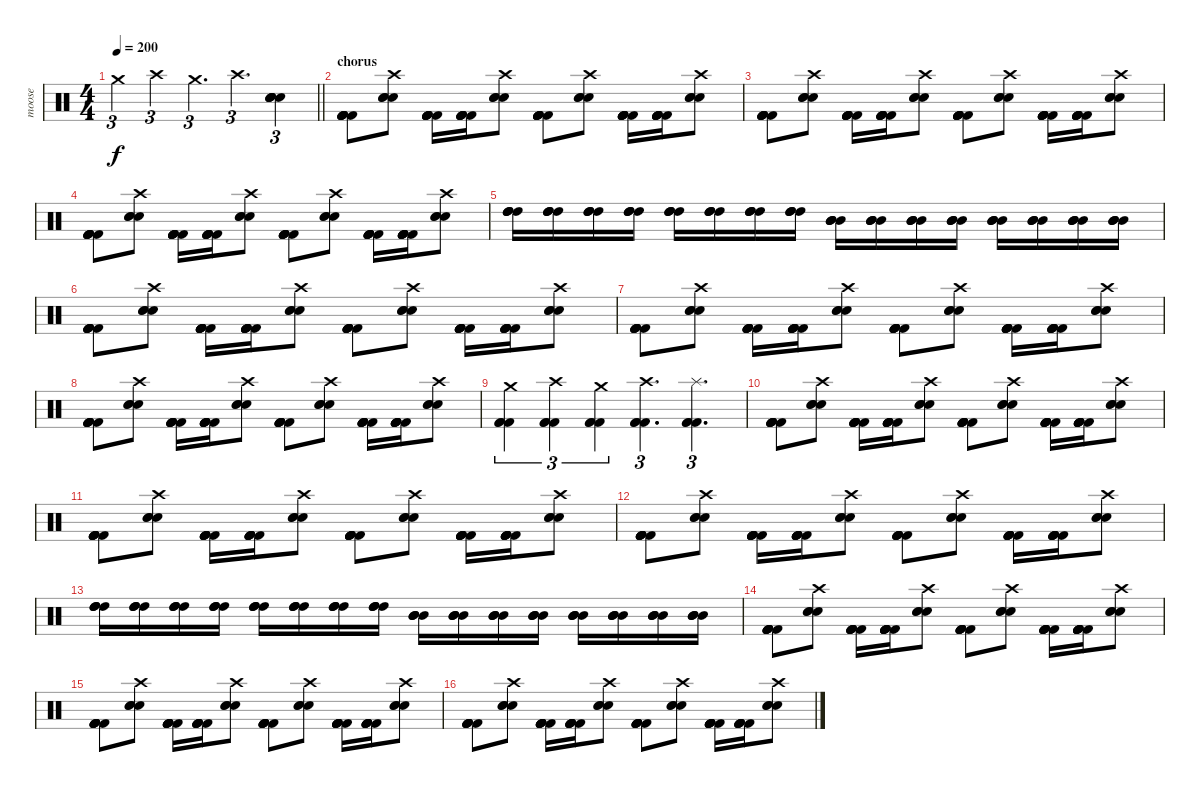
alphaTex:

\track ("moose" "moose") {instrument percussion}
\staff {score}
\articulation defaults
\ts (4 4)
\tempo 200
\clef neutral
\barLineRight lightlight
\ks c "Crash medium (hit)".4{tu (3 2) dy f} "Crash high (hit)".4{tu (3 2)} "Crash medium (hit)".4{d tu (3 2)} "Crash high (hit)".4{d tu (3 2)}
("Electric Snare (hit)" "Electric Snare (hit)" "Electric Snare (hit)" "Electric Snare (hit)" "Electric Snare (hit)").4{tu (3 2)} |
\section ("" "chorus")
("Kick (hit) 2" "Kick (hit) 2" "Kick (hit) 2" "Kick (hit) 2" "Kick (hit) 2" "Kick (hit) 2").8 ("Electric Snare (hit)" "Electric Snare (hit)" "Electric Snare (hit)" "Crash high (hit)").8 ("Kick (hit) 2" "Kick (hit) 2" "Kick (hit) 2" "Kick (hit) 2" "Kick (hit) 2" "Kick (hit) 2").16 ("Kick (hit) 2" "Kick (hit) 2" "Kick (hit) 2" "Kick (hit) 2" "Kick (hit) 2" "Kick (hit) 2").16 ("Electric Snare (hit)" "Electric Snare (hit)" "Electric Snare (hit)" "Crash high (hit)").8 ("Kick (hit) 2" "Kick (hit) 2" "Kick (hit) 2" "Kick (hit) 2" "Kick (hit) 2" "Kick (hit) 2").8 ("Electric Snare (hit)" "Electric Snare (hit)" "Electric Snare (hit)" "Crash high (hit)").8 ("Kick (hit) 2" "Kick (hit) 2" "Kick (hit) 2" "Kick (hit) 2" "Kick (hit) 2" "Kick (hit) 2").16 ("Kick (hit) 2" "Kick (hit) 2" "Kick (hit) 2" "Kick (hit) 2" "Kick (hit) 2" "Kick (hit) 2").16 ("Electric Snare (hit)" "Electric Snare (hit)" "Electric Snare (hit)" "Crash high (hit)").8 |
("Kick (hit) 2" "Kick (hit) 2" "Kick (hit) 2" "Kick (hit) 2" "Kick (hit) 2" "Kick (hit) 2").8 ("Electric Snare (hit)" "Electric Snare (hit)" "Electric Snare (hit)" "Crash high (hit)").8 ("Kick (hit) 2" "Kick (hit) 2" "Kick (hit) 2" "Kick (hit) 2" "Kick (hit) 2" "Kick (hit) 2").16 ("Kick (hit) 2" "Kick (hit) 2" "Kick (hit) 2" "Kick (hit) 2" "Kick (hit) 2" "Kick (hit) 2").16 ("Electric Snare (hit)" "Electric Snare (hit)" "Electric Snare (hit)" "Crash high (hit)").8 ("Kick (hit) 2" "Kick (hit) 2" "Kick (hit) 2" "Kick (hit) 2" "Kick (hit) 2" "Kick (hit) 2").8 ("Electric Snare (hit)" "Electric Snare (hit)" "Electric Snare (hit)" "Crash high (hit)").8 ("Kick (hit) 2" "Kick (hit) 2" "Kick (hit) 2" "Kick (hit) 2" "Kick (hit) 2" "Kick (hit) 2").16 ("Kick (hit) 2" "Kick (hit) 2" "Kick (hit) 2" "Kick (hit) 2" "Kick (hit) 2" "Kick (hit) 2").16 ("Electric Snare (hit)" "Electric Snare (hit)" "Electric Snare (hit)" "Crash high (hit)").8 |
("Kick (hit) 2" "Kick (hit) 2" "Kick (hit) 2" "Kick (hit) 2" "Kick (hit) 2" "Kick (hit) 2").8 ("Electric Snare (hit)" "Electric Snare (hit)" "Electric Snare (hit)" "Crash high (hit)").8 ("Kick (hit) 2" "Kick (hit) 2" "Kick (hit) 2" "Kick (hit) 2" "Kick (hit) 2" "Kick (hit) 2").16 ("Kick (hit) 2" "Kick (hit) 2" "Kick (hit) 2" "Kick (hit) 2" "Kick (hit) 2" "Kick (hit) 2").16 ("Electric Snare (hit)" "Electric Snare (hit)" "Electric Snare (hit)" "Crash high (hit)").8 ("Kick (hit) 2" "Kick (hit) 2" "Kick (hit) 2" "Kick (hit) 2" "Kick (hit) 2" "Kick (hit) 2").8 ("Electric Snare (hit)" "Electric Snare (hit)" "Electric Snare (hit)" "Crash high (hit)").8 ("Kick (hit) 2" "Kick (hit) 2" "Kick (hit) 2" "Kick (hit) 2" "Kick (hit) 2" "Kick (hit) 2").16 ("Kick (hit) 2" "Kick (hit) 2" "Kick (hit) 2" "Kick (hit) 2" "Kick (hit) 2" "Kick (hit) 2").16 ("Electric Snare (hit)" "Electric Snare (hit)" "Electric Snare (hit)" "Crash high (hit)").8 |
("High Tom (hit)" "High Tom (hit)" "High Tom (hit)" "High Tom (hit)").16 ("High Tom (hit)" "High Tom (hit)" "High Tom (hit)" "High Tom (hit)").16 ("High Tom (hit)" "High Tom (hit)" "High Tom (hit)" "High Tom (hit)").16 ("High Tom (hit)" "High Tom (hit)" "High Tom (hit)" "High Tom (hit)").16 ("High Tom (hit)" "High Tom (hit)" "High Tom (hit)" "High Tom (hit)").16 ("High Tom (hit)" "High Tom (hit)" "High Tom (hit)" "High Tom (hit)").16 ("High Tom (hit)" "High Tom (hit)" "High Tom (hit)" "High Tom (hit)").16 ("High Tom (hit)" "High Tom (hit)" "High Tom (hit)" "High Tom (hit)").16 ("Mid Tom (hit)" "Mid Tom (hit)" "Mid Tom (hit)" "Mid Tom (hit)").16 ("Mid Tom (hit)" "Mid Tom (hit)" "Mid Tom (hit)" "Mid Tom (hit)").16 ("Mid Tom (hit)" "Mid Tom (hit)" "Mid Tom (hit)" "Mid Tom (hit)").16 ("Mid Tom (hit)" "Mid Tom (hit)" "Mid Tom (hit)" "Mid Tom (hit)").16 ("Mid Tom (hit)" "Mid Tom (hit)" "Mid Tom (hit)" "Mid Tom (hit)").16 ("Mid Tom (hit)" "Mid Tom (hit)" "Mid Tom (hit)" "Mid Tom (hit)").16 ("Mid Tom (hit)" "Mid Tom (hit)" "Mid Tom (hit)" "Mid Tom (hit)").16 ("Mid Tom (hit)" "Mid Tom (hit)" "Mid Tom (hit)" "Mid Tom (hit)").16 |
("Kick (hit) 2" "Kick (hit) 2" "Kick (hit) 2" "Kick (hit) 2" "Kick (hit) 2" "Kick (hit) 2").8 ("Electric Snare (hit)" "Electric Snare (hit)" "Electric Snare (hit)" "Crash high (hit)").8 ("Kick (hit) 2" "Kick (hit) 2" "Kick (hit) 2" "Kick (hit) 2" "Kick (hit) 2" "Kick (hit) 2").16 ("Kick (hit) 2" "Kick (hit) 2" "Kick (hit) 2" "Kick (hit) 2" "Kick (hit) 2" "Kick (hit) 2").16 ("Electric Snare (hit)" "Electric Snare (hit)" "Electric Snare (hit)" "Crash high (hit)").8 ("Kick (hit) 2" "Kick (hit) 2" "Kick (hit) 2" "Kick (hit) 2" "Kick (hit) 2" "Kick (hit) 2").8 ("Electric Snare (hit)" "Electric Snare (hit)" "Electric Snare (hit)" "Crash high (hit)").8 ("Kick (hit) 2" "Kick (hit) 2" "Kick (hit) 2" "Kick (hit) 2" "Kick (hit) 2" "Kick (hit) 2").16 ("Kick (hit) 2" "Kick (hit) 2" "Kick (hit) 2" "Kick (hit) 2" "Kick (hit) 2" "Kick (hit) 2").16 ("Electric Snare (hit)" "Electric Snare (hit)" "Electric Snare (hit)" "Crash high (hit)").8 |
("Kick (hit) 2" "Kick (hit) 2" "Kick (hit) 2" "Kick (hit) 2" "Kick (hit) 2" "Kick (hit) 2").8 ("Electric Snare (hit)" "Electric Snare (hit)" "Electric Snare (hit)" "Crash high (hit)").8 ("Kick (hit) 2" "Kick (hit) 2" "Kick (hit) 2" "Kick (hit) 2" "Kick (hit) 2" "Kick (hit) 2").16 ("Kick (hit) 2" "Kick (hit) 2" "Kick (hit) 2" "Kick (hit) 2" "Kick (hit) 2" "Kick (hit) 2").16 ("Electric Snare (hit)" "Electric Snare (hit)" "Electric Snare (hit)" "Crash high (hit)").8 ("Kick (hit) 2" "Kick (hit) 2" "Kick (hit) 2" "Kick (hit) 2" "Kick (hit) 2" "Kick (hit) 2").8 ("Electric Snare (hit)" "Electric Snare (hit)" "Electric Snare (hit)" "Crash high (hit)").8 ("Kick (hit) 2" "Kick (hit) 2" "Kick (hit) 2" "Kick (hit) 2" "Kick (hit) 2" "Kick (hit) 2").16 ("Kick (hit) 2" "Kick (hit) 2" "Kick (hit) 2" "Kick (hit) 2" "Kick (hit) 2" "Kick (hit) 2").16 ("Electric Snare (hit)" "Electric Snare (hit)" "Electric Snare (hit)" "Crash high (hit)").8 |
("Kick (hit) 2" "Kick (hit) 2" "Kick (hit) 2" "Kick (hit) 2" "Kick (hit) 2" "Kick (hit) 2").8 ("Electric Snare (hit)" "Electric Snare (hit)" "Electric Snare (hit)" "Crash high (hit)").8 ("Kick (hit) 2" "Kick (hit) 2" "Kick (hit) 2" "Kick (hit) 2" "Kick (hit) 2" "Kick (hit) 2").16 ("Kick (hit) 2" "Kick (hit) 2" "Kick (hit) 2" "Kick (hit) 2" "Kick (hit) 2" "Kick (hit) 2").16 ("Electric Snare (hit)" "Electric Snare (hit)" "Electric Snare (hit)" "Crash high (hit)").8 ("Kick (hit) 2" "Kick (hit) 2" "Kick (hit) 2" "Kick (hit) 2" "Kick (hit) 2" "Kick (hit) 2").8 ("Electric Snare (hit)" "Electric Snare (hit)" "Electric Snare (hit)" "Crash high (hit)").8 ("Kick (hit) 2" "Kick (hit) 2" "Kick (hit) 2" "Kick (hit) 2" "Kick (hit) 2" "Kick (hit) 2").16 ("Kick (hit) 2" "Kick (hit) 2" "Kick (hit) 2" "Kick (hit) 2" "Kick (hit) 2" "Kick (hit) 2").16 ("Electric Snare (hit)" "Electric Snare (hit)" "Electric Snare (hit)" "Crash high (hit)").8 |
("Kick (hit) 2" "Kick (hit) 2" "Kick (hit) 2" "Crash medium (hit)").4{tu (3 2)} ("Kick (hit) 2" "Kick (hit) 2" "Kick (hit) 2" "Crash high (hit)").4{tu (3 2)} ("Kick (hit) 2" "Kick (hit) 2" "Kick (hit) 2" "Crash medium (hit)").4{tu (3 2)} ("Kick (hit) 2" "Kick (hit) 2" "Kick (hit) 2" "Crash high (hit)").4{d tu (3 2)} ("Kick (hit) 2" "Kick (hit) 2" "Kick (hit) 2" "Splash (hit)").4{d tu (3 2)} |
("Kick (hit) 2" "Kick (hit) 2" "Kick (hit) 2" "Kick (hit) 2" "Kick (hit) 2" "Kick (hit) 2").8 ("Electric Snare (hit)" "Electric Snare (hit)" "Electric Snare (hit)" "Crash high (hit)").8 ("Kick (hit) 2" "Kick (hit) 2" "Kick (hit) 2" "Kick (hit) 2" "Kick (hit) 2" "Kick (hit) 2").16 ("Kick (hit) 2" "Kick (hit) 2" "Kick (hit) 2" "Kick (hit) 2" "Kick (hit) 2" "Kick (hit) 2").16 ("Electric Snare (hit)" "Electric Snare (hit)" "Electric Snare (hit)" "Crash high (hit)").8 ("Kick (hit) 2" "Kick (hit) 2" "Kick (hit) 2" "Kick (hit) 2" "Kick (hit) 2" "Kick (hit) 2").8 ("Electric Snare (hit)" "Electric Snare (hit)" "Electric Snare (hit)" "Crash high (hit)").8 ("Kick (hit) 2" "Kick (hit) 2" "Kick (hit) 2" "Kick (hit) 2" "Kick (hit) 2" "Kick (hit) 2").16 ("Kick (hit) 2" "Kick (hit) 2" "Kick (hit) 2" "Kick (hit) 2" "Kick (hit) 2" "Kick (hit) 2").16 ("Electric Snare (hit)" "Electric Snare (hit)" "Electric Snare (hit)" "Crash high (hit)").8 |
("Kick (hit) 2" "Kick (hit) 2" "Kick (hit) 2" "Kick (hit) 2" "Kick (hit) 2" "Kick (hit) 2").8 ("Electric Snare (hit)" "Electric Snare (hit)" "Electric Snare (hit)" "Crash high (hit)").8 ("Kick (hit) 2" "Kick (hit) 2" "Kick (hit) 2" "Kick (hit) 2" "Kick (hit) 2" "Kick (hit) 2").16 ("Kick (hit) 2" "Kick (hit) 2" "Kick (hit) 2" "Kick (hit) 2" "Kick (hit) 2" "Kick (hit) 2").16 ("Electric Snare (hit)" "Electric Snare (hit)" "Electric Snare (hit)" "Crash high (hit)").8 ("Kick (hit) 2" "Kick (hit) 2" "Kick (hit) 2" "Kick (hit) 2" "Kick (hit) 2" "Kick (hit) 2").8 ("Electric Snare (hit)" "Electric Snare (hit)" "Electric Snare (hit)" "Crash high (hit)").8 ("Kick (hit) 2" "Kick (hit) 2" "Kick (hit) 2" "Kick (hit) 2" "Kick (hit) 2" "Kick (hit) 2").16 ("Kick (hit) 2" "Kick (hit) 2" "Kick (hit) 2" "Kick (hit) 2" "Kick (hit) 2" "Kick (hit) 2").16 ("Electric Snare (hit)" "Electric Snare (hit)" "Electric Snare (hit)" "Crash high (hit)").8 |
("Kick (hit) 2" "Kick (hit) 2" "Kick (hit) 2" "Kick (hit) 2" "Kick (hit) 2" "Kick (hit) 2").8 ("Electric Snare (hit)" "Electric Snare (hit)" "Electric Snare (hit)" "Crash high (hit)").8 ("Kick (hit) 2" "Kick (hit) 2" "Kick (hit) 2" "Kick (hit) 2" "Kick (hit) 2" "Kick (hit) 2").16 ("Kick (hit) 2" "Kick (hit) 2" "Kick (hit) 2" "Kick (hit) 2" "Kick (hit) 2" "Kick (hit) 2").16 ("Electric Snare (hit)" "Electric Snare (hit)" "Electric Snare (hit)" "Crash high (hit)").8 ("Kick (hit) 2" "Kick (hit) 2" "Kick (hit) 2" "Kick (hit) 2" "Kick (hit) 2" "Kick (hit) 2").8 ("Electric Snare (hit)" "Electric Snare (hit)" "Electric Snare (hit)" "Crash high (hit)").8 ("Kick (hit) 2" "Kick (hit) 2" "Kick (hit) 2" "Kick (hit) 2" "Kick (hit) 2" "Kick (hit) 2").16 ("Kick (hit) 2" "Kick (hit) 2" "Kick (hit) 2" "Kick (hit) 2" "Kick (hit) 2" "Kick (hit) 2").16 ("Electric Snare (hit)" "Electric Snare (hit)" "Electric Snare (hit)" "Crash high (hit)").8 |
("High Tom (hit)" "High Tom (hit)" "High Tom (hit)" "High Tom (hit)").16 ("High Tom (hit)" "High Tom (hit)" "High Tom (hit)" "High Tom (hit)").16 ("High Tom (hit)" "High Tom (hit)" "High Tom (hit)" "High Tom (hit)").16 ("High Tom (hit)" "High Tom (hit)" "High Tom (hit)" "High Tom (hit)").16 ("High Tom (hit)" "High Tom (hit)" "High Tom (hit)" "High Tom (hit)").16 ("High Tom (hit)" "High Tom (hit)" "High Tom (hit)" "High Tom (hit)").16 ("High Tom (hit)" "High Tom (hit)" "High Tom (hit)" "High Tom (hit)").16 ("High Tom (hit)" "High Tom (hit)" "High Tom (hit)" "High Tom (hit)").16 ("Mid Tom (hit)" "Mid Tom (hit)" "Mid Tom (hit)" "Mid Tom (hit)").16 ("Mid Tom (hit)" "Mid Tom (hit)" "Mid Tom (hit)" "Mid Tom (hit)").16 ("Mid Tom (hit)" "Mid Tom (hit)" "Mid Tom (hit)" "Mid Tom (hit)").16 ("Mid Tom (hit)" "Mid Tom (hit)" "Mid Tom (hit)" "Mid Tom (hit)").16 ("Mid Tom (hit)" "Mid Tom (hit)" "Mid Tom (hit)" "Mid Tom (hit)").16 ("Mid Tom (hit)" "Mid Tom (hit)" "Mid Tom (hit)" "Mid Tom (hit)").16 ("Mid Tom (hit)" "Mid Tom (hit)" "Mid Tom (hit)" "Mid Tom (hit)").16 ("Mid Tom (hit)" "Mid Tom (hit)" "Mid Tom (hit)" "Mid Tom (hit)").16 |
("Kick (hit) 2" "Kick (hit) 2" "Kick (hit) 2" "Kick (hit) 2" "Kick (hit) 2" "Kick (hit) 2").8 ("Electric Snare (hit)" "Electric Snare (hit)" "Electric Snare (hit)" "Crash high (hit)").8 ("Kick (hit) 2" "Kick (hit) 2" "Kick (hit) 2" "Kick (hit) 2" "Kick (hit) 2" "Kick (hit) 2").16 ("Kick (hit) 2" "Kick (hit) 2" "Kick (hit) 2" "Kick (hit) 2" "Kick (hit) 2" "Kick (hit) 2").16 ("Electric Snare (hit)" "Electric Snare (hit)" "Electric Snare (hit)" "Crash high (hit)").8 ("Kick (hit) 2" "Kick (hit) 2" "Kick (hit) 2" "Kick (hit) 2" "Kick (hit) 2" "Kick (hit) 2").8 ("Electric Snare (hit)" "Electric Snare (hit)" "Electric Snare (hit)" "Crash high (hit)").8 ("Kick (hit) 2" "Kick (hit) 2" "Kick (hit) 2" "Kick (hit) 2" "Kick (hit) 2" "Kick (hit) 2").16 ("Kick (hit) 2" "Kick (hit) 2" "Kick (hit) 2" "Kick (hit) 2" "Kick (hit) 2" "Kick (hit) 2").16 ("Electric Snare (hit)" "Electric Snare (hit)" "Electric Snare (hit)" "Crash high (hit)").8 |
("Kick (hit) 2" "Kick (hit) 2" "Kick (hit) 2" "Kick (hit) 2" "Kick (hit) 2" "Kick (hit) 2").8 ("Electric Snare (hit)" "Electric Snare (hit)" "Electric Snare (hit)" "Crash high (hit)").8 ("Kick (hit) 2" "Kick (hit) 2" "Kick (hit) 2" "Kick (hit) 2" "Kick (hit) 2" "Kick (hit) 2").16 ("Kick (hit) 2" "Kick (hit) 2" "Kick (hit) 2" "Kick (hit) 2" "Kick (hit) 2" "Kick (hit) 2").16 ("Electric Snare (hit)" "Electric Snare (hit)" "Electric Snare (hit)" "Crash high (hit)").8 ("Kick (hit) 2" "Kick (hit) 2" "Kick (hit) 2" "Kick (hit) 2" "Kick (hit) 2" "Kick (hit) 2").8 ("Electric Snare (hit)" "Electric Snare (hit)" "Electric Snare (hit)" "Crash high (hit)").8 ("Kick (hit) 2" "Kick (hit) 2" "Kick (hit) 2" "Kick (hit) 2" "Kick (hit) 2" "Kick (hit) 2").16 ("Kick (hit) 2" "Kick (hit) 2" "Kick (hit) 2" "Kick (hit) 2" "Kick (hit) 2" "Kick (hit) 2").16 ("Electric Snare (hit)" "Electric Snare (hit)" "Electric Snare (hit)" "Crash high (hit)").8 |
("Kick (hit) 2" "Kick (hit) 2" "Kick (hit) 2" "Kick (hit) 2" "Kick (hit) 2" "Kick (hit) 2").8 ("Electric Snare (hit)" "Electric Snare (hit)" "Electric Snare (hit)" "Crash high (hit)").8 ("Kick (hit) 2" "Kick (hit) 2" "Kick (hit) 2" "Kick (hit) 2" "Kick (hit) 2" "Kick (hit) 2").16 ("Kick (hit) 2" "Kick (hit) 2" "Kick (hit) 2" "Kick (hit) 2" "Kick (hit) 2" "Kick (hit) 2").16 ("Electric Snare (hit)" "Electric Snare (hit)" "Electric Snare (hit)" "Crash high (hit)").8 ("Kick (hit) 2" "Kick (hit) 2" "Kick (hit) 2" "Kick (hit) 2" "Kick (hit) 2" "Kick (hit) 2").8 ("Electric Snare (hit)" "Electric Snare (hit)" "Electric Snare (hit)" "Crash high (hit)").8 ("Kick (hit) 2" "Kick (hit) 2" "Kick (hit) 2" "Kick (hit) 2" "Kick (hit) 2" "Kick (hit) 2").16 ("Kick (hit) 2" "Kick (hit) 2" "Kick (hit) 2" "Kick (hit) 2" "Kick (hit) 2" "Kick (hit) 2").16 ("Electric Snare (hit)" "Electric Snare (hit)" "Electric Snare (hit)" "Crash high (hit)").8
